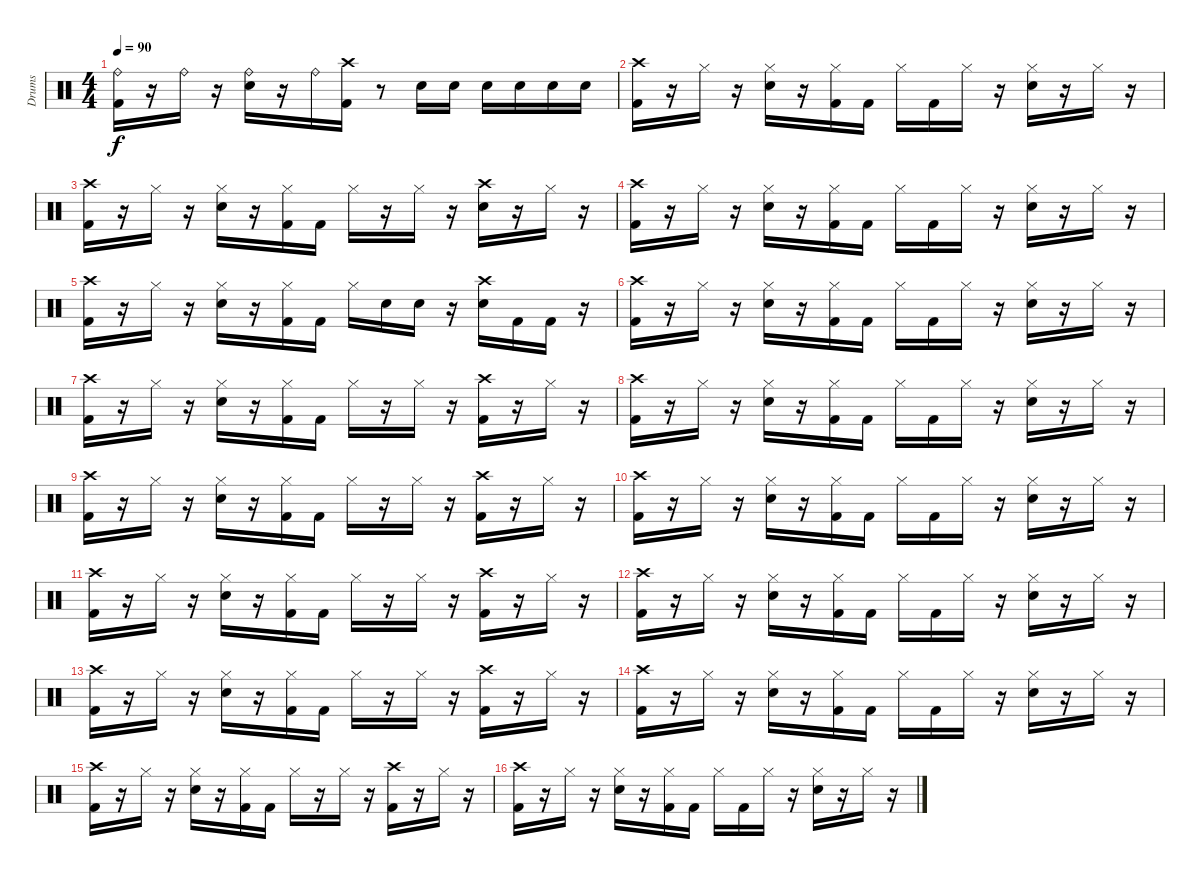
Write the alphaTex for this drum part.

\track ("Drums" "Drums") {instrument percussion}
\staff {score}
\articulation defaults
\ts (4 4)
\tempo 90
\clef neutral
\ks c
("Ride (bell)" "Kick (hit) 2").16{dy f} r.16 "Ride (bell)".16 r.16 ("Ride (bell)" "Electric Snare (hit)").16 r.16 "Ride (bell)".16 ("Crash high (hit)" "Kick (hit) 2").16 r.8 "Electric Snare (hit)".16 "Electric Snare (hit)".16 "Electric Snare (hit)".16 "Electric Snare (hit)".16 "Electric Snare (hit)".16 "Electric Snare (hit)".16 |
("Kick (hit) 2" "Crash high (hit)").16 r.16 "Hi-Hat (closed)".16 r.16 ("Electric Snare (hit)" "Hi-Hat (closed)").16 r.16 ("Kick (hit) 2" "Hi-Hat (closed)").16 "Kick (hit) 2".16 "Hi-Hat (closed)".16 "Kick (hit) 2".16 "Hi-Hat (closed)".16 r.16 ("Electric Snare (hit)" "Hi-Hat (closed)").16 r.16 "Hi-Hat (closed)".16 r.16 |
("Crash high (hit)" "Kick (hit) 2").16 r.16 "Hi-Hat (closed)".16 r.16 ("Electric Snare (hit)" "Hi-Hat (closed)").16 r.16 ("Kick (hit) 2" "Hi-Hat (closed)").16 "Kick (hit) 2".16 "Hi-Hat (closed)".16 r.16 "Hi-Hat (closed)".16 r.16 ("Electric Snare (hit)" "Crash high (hit)").16 r.16 "Hi-Hat (closed)".16 r.16 |
("Crash high (hit)" "Kick (hit) 2").16 r.16 "Hi-Hat (closed)".16 r.16 ("Electric Snare (hit)" "Hi-Hat (closed)").16 r.16 ("Kick (hit) 2" "Hi-Hat (closed)").16 "Kick (hit) 2".16 "Hi-Hat (closed)".16 "Kick (hit) 2".16 "Hi-Hat (closed)".16 r.16 ("Electric Snare (hit)" "Hi-Hat (closed)").16 r.16 "Hi-Hat (closed)".16 r.16 |
("Kick (hit) 2" "Crash high (hit)").16 r.16 "Hi-Hat (closed)".16 r.16 ("Electric Snare (hit)" "Hi-Hat (closed)").16 r.16 ("Kick (hit) 2" "Hi-Hat (closed)").16 "Kick (hit) 2".16 "Hi-Hat (closed)".16 "Electric Snare (hit)".16 "Electric Snare (hit)".16 r.16 ("Crash high (hit)" "Electric Snare (hit)").16 "Kick (hit) 2".16 "Kick (hit) 2".16 r.16 |
("Crash high (hit)" "Kick (hit) 2").16 r.16 "Hi-Hat (closed)".16 r.16 ("Hi-Hat (closed)" "Electric Snare (hit)").16 r.16 ("Hi-Hat (closed)" "Kick (hit) 2").16 "Kick (hit) 2".16 "Hi-Hat (closed)".16 "Kick (hit) 2".16 "Hi-Hat (closed)".16 r.16 ("Hi-Hat (closed)" "Electric Snare (hit)").16 r.16 "Hi-Hat (closed)".16 r.16 |
("Kick (hit) 2" "Crash high (hit)").16 r.16 "Hi-Hat (closed)".16 r.16 ("Hi-Hat (closed)" "Electric Snare (hit)").16 r.16 ("Hi-Hat (closed)" "Kick (hit) 2").16 "Kick (hit) 2".16 "Hi-Hat (closed)".16 r.16 "Hi-Hat (closed)".16 r.16 ("Crash high (hit)" "Kick (hit) 2").16 r.16 "Hi-Hat (closed)".16 r.16 |
("Kick (hit) 2" "Crash high (hit)").16 r.16 "Hi-Hat (closed)".16 r.16 ("Electric Snare (hit)" "Hi-Hat (closed)").16 r.16 ("Kick (hit) 2" "Hi-Hat (closed)").16 "Kick (hit) 2".16 "Hi-Hat (closed)".16 "Kick (hit) 2".16 "Hi-Hat (closed)".16 r.16 ("Electric Snare (hit)" "Hi-Hat (closed)").16 r.16 "Hi-Hat (closed)".16 r.16 |
("Crash high (hit)" "Kick (hit) 2").16 r.16 "Hi-Hat (closed)".16 r.16 ("Electric Snare (hit)" "Hi-Hat (closed)").16 r.16 ("Kick (hit) 2" "Hi-Hat (closed)").16 "Kick (hit) 2".16 "Hi-Hat (closed)".16 r.16 "Hi-Hat (closed)".16 r.16 ("Kick (hit) 2" "Crash high (hit)").16 r.16 "Hi-Hat (closed)".16 r.16 |
("Kick (hit) 2" "Crash high (hit)").16 r.16 "Hi-Hat (closed)".16 r.16 ("Electric Snare (hit)" "Hi-Hat (closed)").16 r.16 ("Kick (hit) 2" "Hi-Hat (closed)").16 "Kick (hit) 2".16 "Hi-Hat (closed)".16 "Kick (hit) 2".16 "Hi-Hat (closed)".16 r.16 ("Electric Snare (hit)" "Hi-Hat (closed)").16 r.16 "Hi-Hat (closed)".16 r.16 |
("Crash high (hit)" "Kick (hit) 2").16 r.16 "Hi-Hat (closed)".16 r.16 ("Electric Snare (hit)" "Hi-Hat (closed)").16 r.16 ("Kick (hit) 2" "Hi-Hat (closed)").16 "Kick (hit) 2".16 "Hi-Hat (closed)".16 r.16 "Hi-Hat (closed)".16 r.16 ("Kick (hit) 2" "Crash high (hit)").16 r.16 "Hi-Hat (closed)".16 r.16 |
("Crash high (hit)" "Kick (hit) 2").16 r.16 "Hi-Hat (closed)".16 r.16 ("Hi-Hat (closed)" "Electric Snare (hit)").16 r.16 ("Hi-Hat (closed)" "Kick (hit) 2").16 "Kick (hit) 2".16 "Hi-Hat (closed)".16 "Kick (hit) 2".16 "Hi-Hat (closed)".16 r.16 ("Hi-Hat (closed)" "Electric Snare (hit)").16 r.16 "Hi-Hat (closed)".16 r.16 |
("Kick (hit) 2" "Crash high (hit)").16 r.16 "Hi-Hat (closed)".16 r.16 ("Hi-Hat (closed)" "Electric Snare (hit)").16 r.16 ("Hi-Hat (closed)" "Kick (hit) 2").16 "Kick (hit) 2".16 "Hi-Hat (closed)".16 r.16 "Hi-Hat (closed)".16 r.16 ("Crash high (hit)" "Kick (hit) 2").16 r.16 "Hi-Hat (closed)".16 r.16 |
("Kick (hit) 2" "Crash high (hit)").16 r.16 "Hi-Hat (closed)".16 r.16 ("Electric Snare (hit)" "Hi-Hat (closed)").16 r.16 ("Kick (hit) 2" "Hi-Hat (closed)").16 "Kick (hit) 2".16 "Hi-Hat (closed)".16 "Kick (hit) 2".16 "Hi-Hat (closed)".16 r.16 ("Electric Snare (hit)" "Hi-Hat (closed)").16 r.16 "Hi-Hat (closed)".16 r.16 |
("Crash high (hit)" "Kick (hit) 2").16 r.16 "Hi-Hat (closed)".16 r.16 ("Electric Snare (hit)" "Hi-Hat (closed)").16 r.16 ("Kick (hit) 2" "Hi-Hat (closed)").16 "Kick (hit) 2".16 "Hi-Hat (closed)".16 r.16 "Hi-Hat (closed)".16 r.16 ("Kick (hit) 2" "Crash high (hit)").16 r.16 "Hi-Hat (closed)".16 r.16 |
("Crash high (hit)" "Kick (hit) 2").16 r.16 "Hi-Hat (closed)".16 r.16 ("Hi-Hat (closed)" "Electric Snare (hit)").16 r.16 ("Hi-Hat (closed)" "Kick (hit) 2").16 "Kick (hit) 2".16 "Hi-Hat (closed)".16 "Kick (hit) 2".16 "Hi-Hat (closed)".16 r.16 ("Hi-Hat (closed)" "Electric Snare (hit)").16 r.16 "Hi-Hat (closed)".16 r.16
